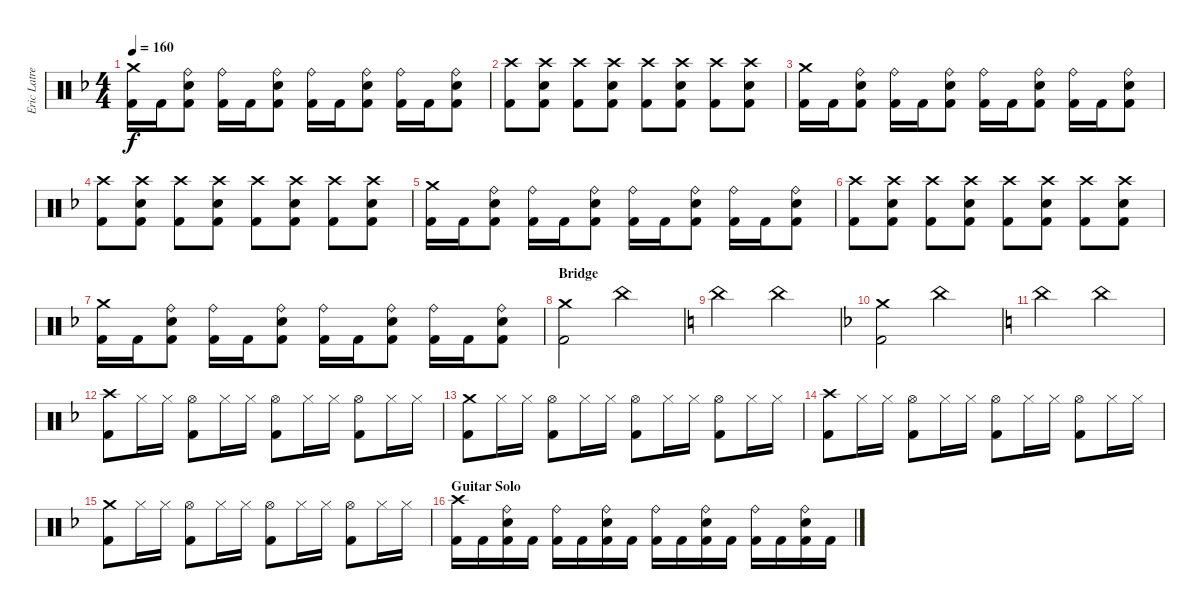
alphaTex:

\track ("Eric Latreille" "Eric Latre") {instrument percussion}
\staff {score}
\articulation defaults
\ts (4 4)
\tempo 160
\clef neutral
\ks dminor
("Crash medium (hit)" "Kick (hit) 2").16{dy f} "Kick (hit) 2".16 ("Ride (bell)" "Snare (hit) 2" "Kick (hit) 2").8 ("Ride (bell)" "Kick (hit) 2").16 "Kick (hit) 2".16 ("Ride (bell)" "Snare (hit) 2" "Kick (hit) 2").8 ("Ride (bell)" "Kick (hit) 2").16 "Kick (hit) 2".16 ("Ride (bell)" "Snare (hit) 2" "Kick (hit) 2").8 ("Ride (bell)" "Kick (hit) 2").16 "Kick (hit) 2".16 ("Ride (bell)" "Snare (hit) 2" "Kick (hit) 2").8 |
("Crash high (hit)" "Kick (hit) 2").8 ("Crash high (hit)" "Snare (hit) 2" "Kick (hit) 2").8 ("Crash high (hit)" "Kick (hit) 2").8 ("Crash high (hit)" "Snare (hit) 2" "Kick (hit) 2").8 ("Crash high (hit)" "Kick (hit) 2").8 ("Crash high (hit)" "Snare (hit) 2" "Kick (hit) 2").8 ("Crash high (hit)" "Kick (hit) 2").8 ("Crash high (hit)" "Snare (hit) 2" "Kick (hit) 2").8 |
("Crash medium (hit)" "Kick (hit) 2").16 "Kick (hit) 2".16 ("Ride (bell)" "Snare (hit) 2" "Kick (hit) 2").8 ("Ride (bell)" "Kick (hit) 2").16 "Kick (hit) 2".16 ("Ride (bell)" "Snare (hit) 2" "Kick (hit) 2").8 ("Ride (bell)" "Kick (hit) 2").16 "Kick (hit) 2".16 ("Ride (bell)" "Snare (hit) 2" "Kick (hit) 2").8 ("Ride (bell)" "Kick (hit) 2").16 "Kick (hit) 2".16 ("Ride (bell)" "Snare (hit) 2" "Kick (hit) 2").8 |
("Crash high (hit)" "Kick (hit) 2").8 ("Crash high (hit)" "Snare (hit) 2" "Kick (hit) 2").8 ("Crash high (hit)" "Kick (hit) 2").8 ("Crash high (hit)" "Snare (hit) 2" "Kick (hit) 2").8 ("Crash high (hit)" "Kick (hit) 2").8 ("Crash high (hit)" "Snare (hit) 2" "Kick (hit) 2").8 ("Crash high (hit)" "Kick (hit) 2").8 ("Crash high (hit)" "Snare (hit) 2" "Kick (hit) 2").8 |
("Crash medium (hit)" "Kick (hit) 2").16 "Kick (hit) 2".16 ("Ride (bell)" "Snare (hit) 2" "Kick (hit) 2").8 ("Ride (bell)" "Kick (hit) 2").16 "Kick (hit) 2".16 ("Ride (bell)" "Snare (hit) 2" "Kick (hit) 2").8 ("Ride (bell)" "Kick (hit) 2").16 "Kick (hit) 2".16 ("Ride (bell)" "Snare (hit) 2" "Kick (hit) 2").8 ("Ride (bell)" "Kick (hit) 2").16 "Kick (hit) 2".16 ("Ride (bell)" "Snare (hit) 2" "Kick (hit) 2").8 |
("Crash high (hit)" "Kick (hit) 2").8 ("Crash high (hit)" "Snare (hit) 2" "Kick (hit) 2").8 ("Crash high (hit)" "Kick (hit) 2").8 ("Crash high (hit)" "Snare (hit) 2" "Kick (hit) 2").8 ("Crash high (hit)" "Kick (hit) 2").8 ("Crash high (hit)" "Snare (hit) 2" "Kick (hit) 2").8 ("Crash high (hit)" "Kick (hit) 2").8 ("Crash high (hit)" "Snare (hit) 2" "Kick (hit) 2").8 |
("Crash medium (hit)" "Kick (hit) 2").16 "Kick (hit) 2".16 ("Ride (bell)" "Snare (hit) 2" "Kick (hit) 2").8 ("Ride (bell)" "Kick (hit) 2").16 "Kick (hit) 2".16 ("Ride (bell)" "Snare (hit) 2" "Kick (hit) 2").8 ("Ride (bell)" "Kick (hit) 2").16 "Kick (hit) 2".16 ("Ride (bell)" "Snare (hit) 2" "Kick (hit) 2").8 ("Ride (bell)" "Kick (hit) 2").16 "Kick (hit) 2".16 ("Ride (bell)" "Snare (hit) 2" "Kick (hit) 2").8 |
\section ("" "Bridge")
("Crash medium (hit)" "Kick (hit) 2").2 "China (hit)".2 |
\ks c "China (hit)".2 "China (hit)".2
|
\ks dminor
("Crash medium (hit)" "Kick (hit) 2").2 "China (hit)".2 |
\ks c "China (hit)".2 "China (hit)".2
|
\ks dminor
("Crash high (hit)" "Kick (hit) 2").8 "Hi-Hat (closed)".16 "Hi-Hat (closed)".16 ("Hi-Hat (open)" "Kick (hit) 2").8 "Hi-Hat (closed)".16 "Hi-Hat (closed)".16 ("Hi-Hat (open)" "Kick (hit) 2").8 "Hi-Hat (closed)".16 "Hi-Hat (closed)".16 ("Hi-Hat (open)" "Kick (hit) 2").8 "Hi-Hat (closed)".16 "Hi-Hat (closed)".16 |
("Crash medium (hit)" "Kick (hit) 2").8 "Hi-Hat (closed)".16 "Hi-Hat (closed)".16 ("Hi-Hat (open)" "Kick (hit) 2").8 "Hi-Hat (closed)".16 "Hi-Hat (closed)".16 ("Hi-Hat (open)" "Kick (hit) 2").8 "Hi-Hat (closed)".16 "Hi-Hat (closed)".16 ("Hi-Hat (open)" "Kick (hit) 2").8 "Hi-Hat (closed)".16 "Hi-Hat (closed)".16 |
("Crash high (hit)" "Kick (hit) 2").8 "Hi-Hat (closed)".16 "Hi-Hat (closed)".16 ("Hi-Hat (open)" "Kick (hit) 2").8 "Hi-Hat (closed)".16 "Hi-Hat (closed)".16 ("Hi-Hat (open)" "Kick (hit) 2").8 "Hi-Hat (closed)".16 "Hi-Hat (closed)".16 ("Hi-Hat (open)" "Kick (hit) 2").8 "Hi-Hat (closed)".16 "Hi-Hat (closed)".16 |
("Crash medium (hit)" "Kick (hit) 2").8 "Hi-Hat (closed)".16 "Hi-Hat (closed)".16 ("Hi-Hat (open)" "Kick (hit) 2").8 "Hi-Hat (closed)".16 "Hi-Hat (closed)".16 ("Hi-Hat (open)" "Kick (hit) 2").8 "Hi-Hat (closed)".16 "Hi-Hat (closed)".16 ("Hi-Hat (open)" "Kick (hit) 2").8 "Hi-Hat (closed)".16 "Hi-Hat (closed)".16 |
\section ("" "Guitar Solo")
("Crash high (hit)" "Kick (hit) 2").16 "Kick (hit) 2".16 ("Ride (bell)" "Snare (hit) 2" "Kick (hit) 2").16 "Kick (hit) 2".16 ("Ride (bell)" "Kick (hit) 2").16 "Kick (hit) 2".16 ("Ride (bell)" "Snare (hit) 2" "Kick (hit) 2").16 "Kick (hit) 2".16 ("Ride (bell)" "Kick (hit) 2").16 "Kick (hit) 2".16 ("Ride (bell)" "Snare (hit) 2" "Kick (hit) 2").16 "Kick (hit) 2".16 ("Ride (bell)" "Kick (hit) 2").16 "Kick (hit) 2".16 ("Ride (bell)" "Snare (hit) 2" "Kick (hit) 2").16 "Kick (hit) 2".16
